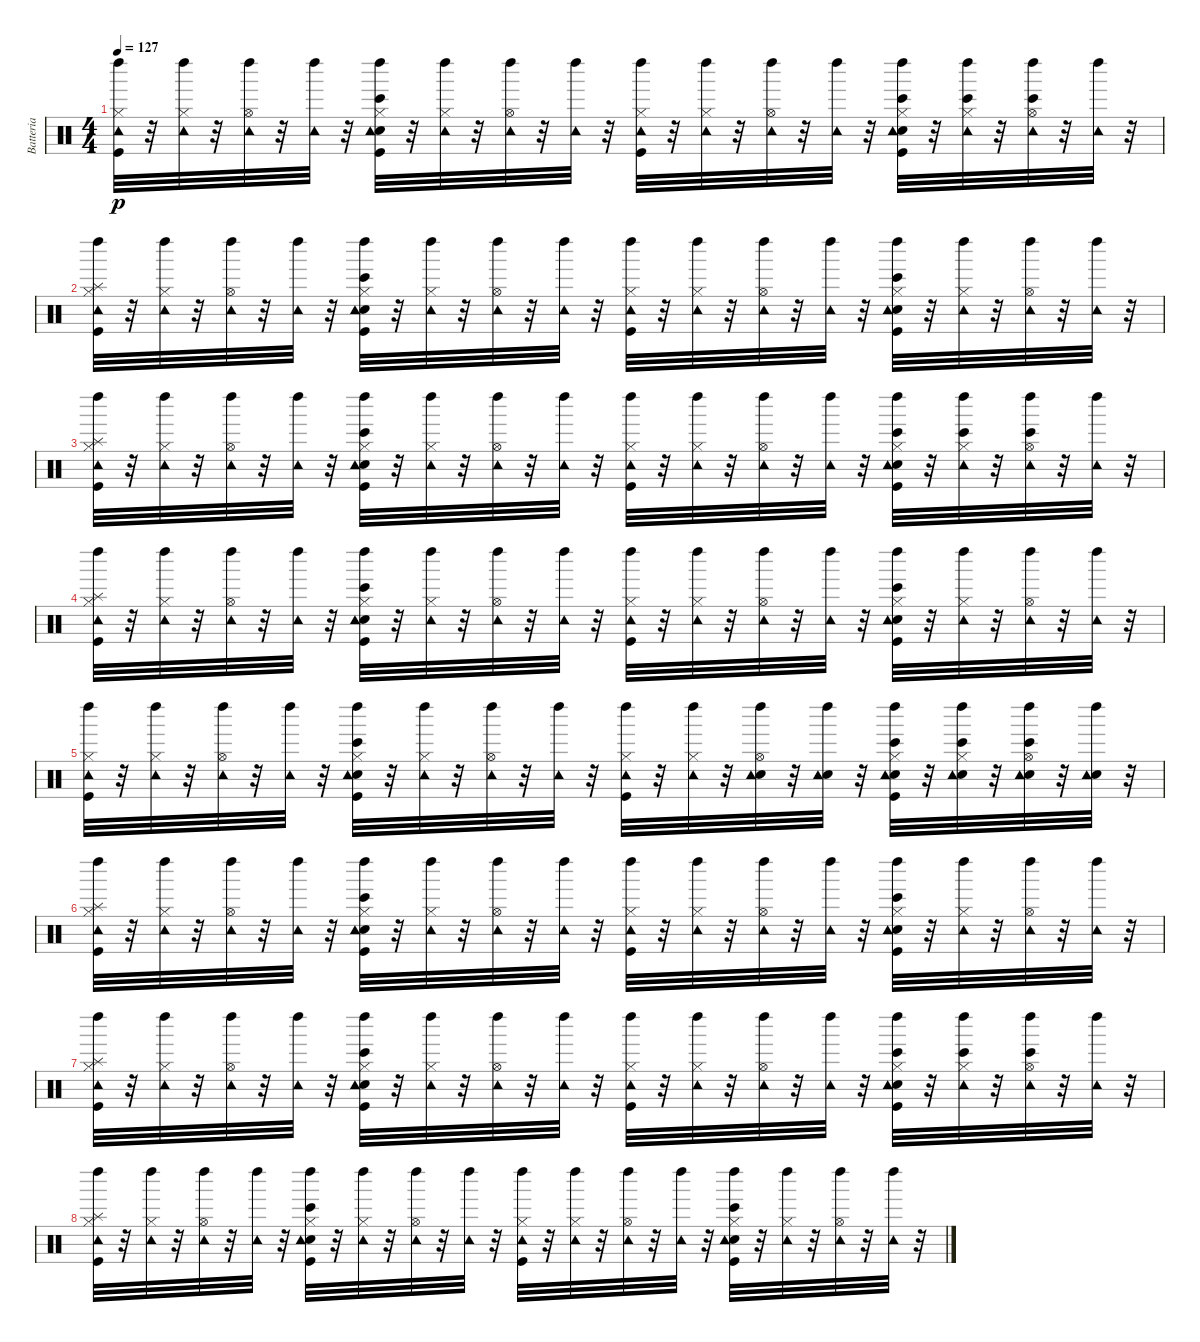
\track ("Batteria" "Batteria") {instrument percussion}
\staff {score}
\articulation defaults
\ts (4 4)
\tempo 127
\clef neutral
\ks c
("Kick (hit)" "Hi-Hat (closed)" "Tambourine (hit)" "Left Maraca (hit)").32{dy p} r.32 ("Hi-Hat (closed)" "Tambourine (hit)" "Left Maraca (hit)").32 r.32 ("Hi-Hat (open)" "Tambourine (hit)" "Left Maraca (hit)").32 r.32 ("Tambourine (hit)" "Left Maraca (hit)").32 r.32 ("Bongo High (hit)" "Kick (hit)" "Electric Snare (hit)" "Hi-Hat (closed)" "Tambourine (hit)" "Left Maraca (hit)").32 r.32 ("Hi-Hat (closed)" "Tambourine (hit)" "Left Maraca (hit)").32 r.32 ("Hi-Hat (open)" "Tambourine (hit)" "Left Maraca (hit)").32 r.32 ("Tambourine (hit)" "Left Maraca (hit)").32 r.32 ("Kick (hit)" "Hi-Hat (closed)" "Tambourine (hit)" "Left Maraca (hit)").32 r.32 ("Hi-Hat (closed)" "Tambourine (hit)" "Left Maraca (hit)").32 r.32 ("Hi-Hat (open)" "Tambourine (hit)" "Left Maraca (hit)").32 r.32 ("Tambourine (hit)" "Left Maraca (hit)").32 r.32 ("Bongo High (hit)" "Kick (hit)" "Electric Snare (hit)" "Hi-Hat (closed)" "Tambourine (hit)" "Left Maraca (hit)").32 r.32 ("Bongo High (hit)" "Hi-Hat (closed)" "Tambourine (hit)" "Left Maraca (hit)").32 r.32 ("Bongo High (hit)" "Hi-Hat (open)" "Tambourine (hit)" "Left Maraca (hit)").32 r.32 ("Tambourine (hit)" "Left Maraca (hit)").32 r.32 |
("Kick (hit)" "Hi-Hat (closed)" "Tambourine (hit)" "Splash (hit)" "Left Maraca (hit)").32 r.32 ("Hi-Hat (closed)" "Tambourine (hit)" "Left Maraca (hit)").32 r.32 ("Hi-Hat (open)" "Tambourine (hit)" "Left Maraca (hit)").32 r.32 ("Tambourine (hit)" "Left Maraca (hit)").32 r.32 ("Bongo High (hit)" "Kick (hit)" "Electric Snare (hit)" "Hi-Hat (closed)" "Tambourine (hit)" "Left Maraca (hit)").32 r.32 ("Hi-Hat (closed)" "Tambourine (hit)" "Left Maraca (hit)").32 r.32 ("Hi-Hat (open)" "Tambourine (hit)" "Left Maraca (hit)").32 r.32 ("Tambourine (hit)" "Left Maraca (hit)").32 r.32 ("Kick (hit)" "Hi-Hat (closed)" "Tambourine (hit)" "Left Maraca (hit)").32 r.32 ("Hi-Hat (closed)" "Tambourine (hit)" "Left Maraca (hit)").32 r.32 ("Hi-Hat (open)" "Tambourine (hit)" "Left Maraca (hit)").32 r.32 ("Tambourine (hit)" "Left Maraca (hit)").32 r.32 ("Bongo High (hit)" "Kick (hit)" "Electric Snare (hit)" "Hi-Hat (closed)" "Tambourine (hit)" "Left Maraca (hit)").32 r.32 ("Hi-Hat (closed)" "Tambourine (hit)" "Left Maraca (hit)").32 r.32 ("Hi-Hat (open)" "Tambourine (hit)" "Left Maraca (hit)").32 r.32 ("Tambourine (hit)" "Left Maraca (hit)").32 r.32 |
("Kick (hit)" "Hi-Hat (closed)" "Tambourine (hit)" "Splash (hit)" "Left Maraca (hit)").32 r.32 ("Hi-Hat (closed)" "Tambourine (hit)" "Left Maraca (hit)").32 r.32 ("Hi-Hat (open)" "Tambourine (hit)" "Left Maraca (hit)").32 r.32 ("Tambourine (hit)" "Left Maraca (hit)").32 r.32 ("Bongo High (hit)" "Kick (hit)" "Electric Snare (hit)" "Hi-Hat (closed)" "Tambourine (hit)" "Left Maraca (hit)").32 r.32 ("Hi-Hat (closed)" "Tambourine (hit)" "Left Maraca (hit)").32 r.32 ("Hi-Hat (open)" "Tambourine (hit)" "Left Maraca (hit)").32 r.32 ("Tambourine (hit)" "Left Maraca (hit)").32 r.32 ("Kick (hit)" "Hi-Hat (closed)" "Tambourine (hit)" "Left Maraca (hit)").32 r.32 ("Hi-Hat (closed)" "Tambourine (hit)" "Left Maraca (hit)").32 r.32 ("Hi-Hat (open)" "Tambourine (hit)" "Left Maraca (hit)").32 r.32 ("Tambourine (hit)" "Left Maraca (hit)").32 r.32 ("Bongo High (hit)" "Kick (hit)" "Electric Snare (hit)" "Hi-Hat (closed)" "Tambourine (hit)" "Left Maraca (hit)").32 r.32 ("Bongo High (hit)" "Hi-Hat (closed)" "Tambourine (hit)" "Left Maraca (hit)").32 r.32 ("Bongo High (hit)" "Hi-Hat (open)" "Tambourine (hit)" "Left Maraca (hit)").32 r.32 ("Tambourine (hit)" "Left Maraca (hit)").32 r.32 |
("Kick (hit)" "Hi-Hat (closed)" "Tambourine (hit)" "Splash (hit)" "Left Maraca (hit)").32 r.32 ("Hi-Hat (closed)" "Tambourine (hit)" "Left Maraca (hit)").32 r.32 ("Hi-Hat (open)" "Tambourine (hit)" "Left Maraca (hit)").32 r.32 ("Tambourine (hit)" "Left Maraca (hit)").32 r.32 ("Bongo High (hit)" "Kick (hit)" "Electric Snare (hit)" "Hi-Hat (closed)" "Tambourine (hit)" "Left Maraca (hit)").32 r.32 ("Hi-Hat (closed)" "Tambourine (hit)" "Left Maraca (hit)").32 r.32 ("Hi-Hat (open)" "Tambourine (hit)" "Left Maraca (hit)").32 r.32 ("Tambourine (hit)" "Left Maraca (hit)").32 r.32 ("Kick (hit)" "Hi-Hat (closed)" "Tambourine (hit)" "Left Maraca (hit)").32 r.32 ("Hi-Hat (closed)" "Tambourine (hit)" "Left Maraca (hit)").32 r.32 ("Hi-Hat (open)" "Tambourine (hit)" "Left Maraca (hit)").32 r.32 ("Tambourine (hit)" "Left Maraca (hit)").32 r.32 ("Bongo High (hit)" "Kick (hit)" "Electric Snare (hit)" "Hi-Hat (closed)" "Tambourine (hit)" "Left Maraca (hit)").32 r.32 ("Hi-Hat (closed)" "Tambourine (hit)" "Left Maraca (hit)").32 r.32 ("Hi-Hat (open)" "Tambourine (hit)" "Left Maraca (hit)").32 r.32 ("Tambourine (hit)" "Left Maraca (hit)").32 r.32 |
("Kick (hit)" "Hi-Hat (closed)" "Tambourine (hit)" "Left Maraca (hit)").32 r.32 ("Hi-Hat (closed)" "Tambourine (hit)" "Left Maraca (hit)").32 r.32 ("Hi-Hat (open)" "Tambourine (hit)" "Left Maraca (hit)").32 r.32 ("Tambourine (hit)" "Left Maraca (hit)").32 r.32 ("Bongo High (hit)" "Kick (hit)" "Electric Snare (hit)" "Hi-Hat (closed)" "Tambourine (hit)" "Left Maraca (hit)").32 r.32 ("Hi-Hat (closed)" "Tambourine (hit)" "Left Maraca (hit)").32 r.32 ("Hi-Hat (open)" "Tambourine (hit)" "Left Maraca (hit)").32 r.32 ("Tambourine (hit)" "Left Maraca (hit)").32 r.32 ("Kick (hit)" "Hi-Hat (closed)" "Tambourine (hit)" "Left Maraca (hit)").32 r.32 ("Hi-Hat (closed)" "Tambourine (hit)" "Left Maraca (hit)").32 r.32 ("Electric Snare (hit)" "Hi-Hat (open)" "Tambourine (hit)" "Left Maraca (hit)").32 r.32 ("Electric Snare (hit)" "Tambourine (hit)" "Left Maraca (hit)").32 r.32 ("Bongo High (hit)" "Kick (hit)" "Electric Snare (hit)" "Hi-Hat (closed)" "Tambourine (hit)" "Left Maraca (hit)").32 r.32 ("Bongo High (hit)" "Electric Snare (hit)" "Hi-Hat (closed)" "Tambourine (hit)" "Left Maraca (hit)").32 r.32 ("Bongo High (hit)" "Electric Snare (hit)" "Hi-Hat (open)" "Tambourine (hit)" "Left Maraca (hit)").32 r.32 ("Electric Snare (hit)" "Tambourine (hit)" "Left Maraca (hit)").32 r.32 |
("Kick (hit)" "Hi-Hat (closed)" "Tambourine (hit)" "Splash (hit)" "Left Maraca (hit)").32 r.32 ("Hi-Hat (closed)" "Tambourine (hit)" "Left Maraca (hit)").32 r.32 ("Hi-Hat (open)" "Tambourine (hit)" "Left Maraca (hit)").32 r.32 ("Tambourine (hit)" "Left Maraca (hit)").32 r.32 ("Bongo High (hit)" "Kick (hit)" "Electric Snare (hit)" "Hi-Hat (closed)" "Tambourine (hit)" "Left Maraca (hit)").32 r.32 ("Hi-Hat (closed)" "Tambourine (hit)" "Left Maraca (hit)").32 r.32 ("Hi-Hat (open)" "Tambourine (hit)" "Left Maraca (hit)").32 r.32 ("Tambourine (hit)" "Left Maraca (hit)").32 r.32 ("Kick (hit)" "Hi-Hat (closed)" "Tambourine (hit)" "Left Maraca (hit)").32 r.32 ("Hi-Hat (closed)" "Tambourine (hit)" "Left Maraca (hit)").32 r.32 ("Hi-Hat (open)" "Tambourine (hit)" "Left Maraca (hit)").32 r.32 ("Tambourine (hit)" "Left Maraca (hit)").32 r.32 ("Bongo High (hit)" "Kick (hit)" "Electric Snare (hit)" "Hi-Hat (closed)" "Tambourine (hit)" "Left Maraca (hit)").32 r.32 ("Hi-Hat (closed)" "Tambourine (hit)" "Left Maraca (hit)").32 r.32 ("Hi-Hat (open)" "Tambourine (hit)" "Left Maraca (hit)").32 r.32 ("Tambourine (hit)" "Left Maraca (hit)").32 r.32 |
("Kick (hit)" "Hi-Hat (closed)" "Tambourine (hit)" "Splash (hit)" "Left Maraca (hit)").32 r.32 ("Hi-Hat (closed)" "Tambourine (hit)" "Left Maraca (hit)").32 r.32 ("Hi-Hat (open)" "Tambourine (hit)" "Left Maraca (hit)").32 r.32 ("Tambourine (hit)" "Left Maraca (hit)").32 r.32 ("Bongo High (hit)" "Kick (hit)" "Electric Snare (hit)" "Hi-Hat (closed)" "Tambourine (hit)" "Left Maraca (hit)").32 r.32 ("Hi-Hat (closed)" "Tambourine (hit)" "Left Maraca (hit)").32 r.32 ("Hi-Hat (open)" "Tambourine (hit)" "Left Maraca (hit)").32 r.32 ("Tambourine (hit)" "Left Maraca (hit)").32 r.32 ("Kick (hit)" "Hi-Hat (closed)" "Tambourine (hit)" "Left Maraca (hit)").32 r.32 ("Hi-Hat (closed)" "Tambourine (hit)" "Left Maraca (hit)").32 r.32 ("Hi-Hat (open)" "Tambourine (hit)" "Left Maraca (hit)").32 r.32 ("Tambourine (hit)" "Left Maraca (hit)").32 r.32 ("Bongo High (hit)" "Kick (hit)" "Electric Snare (hit)" "Hi-Hat (closed)" "Tambourine (hit)" "Left Maraca (hit)").32 r.32 ("Bongo High (hit)" "Hi-Hat (closed)" "Tambourine (hit)" "Left Maraca (hit)").32 r.32 ("Bongo High (hit)" "Hi-Hat (open)" "Tambourine (hit)" "Left Maraca (hit)").32 r.32 ("Tambourine (hit)" "Left Maraca (hit)").32 r.32 |
("Kick (hit)" "Hi-Hat (closed)" "Tambourine (hit)" "Splash (hit)" "Left Maraca (hit)").32 r.32 ("Hi-Hat (closed)" "Tambourine (hit)" "Left Maraca (hit)").32 r.32 ("Hi-Hat (open)" "Tambourine (hit)" "Left Maraca (hit)").32 r.32 ("Tambourine (hit)" "Left Maraca (hit)").32 r.32 ("Bongo High (hit)" "Kick (hit)" "Electric Snare (hit)" "Hi-Hat (closed)" "Tambourine (hit)" "Left Maraca (hit)").32 r.32 ("Hi-Hat (closed)" "Tambourine (hit)" "Left Maraca (hit)").32 r.32 ("Hi-Hat (open)" "Tambourine (hit)" "Left Maraca (hit)").32 r.32 ("Tambourine (hit)" "Left Maraca (hit)").32 r.32 ("Kick (hit)" "Hi-Hat (closed)" "Tambourine (hit)" "Left Maraca (hit)").32 r.32 ("Hi-Hat (closed)" "Tambourine (hit)" "Left Maraca (hit)").32 r.32 ("Hi-Hat (open)" "Tambourine (hit)" "Left Maraca (hit)").32 r.32 ("Tambourine (hit)" "Left Maraca (hit)").32 r.32 ("Bongo High (hit)" "Kick (hit)" "Electric Snare (hit)" "Hi-Hat (closed)" "Tambourine (hit)" "Left Maraca (hit)").32 r.32 ("Hi-Hat (closed)" "Tambourine (hit)" "Left Maraca (hit)").32 r.32 ("Hi-Hat (open)" "Tambourine (hit)" "Left Maraca (hit)").32 r.32 ("Tambourine (hit)" "Left Maraca (hit)").32 r.32
